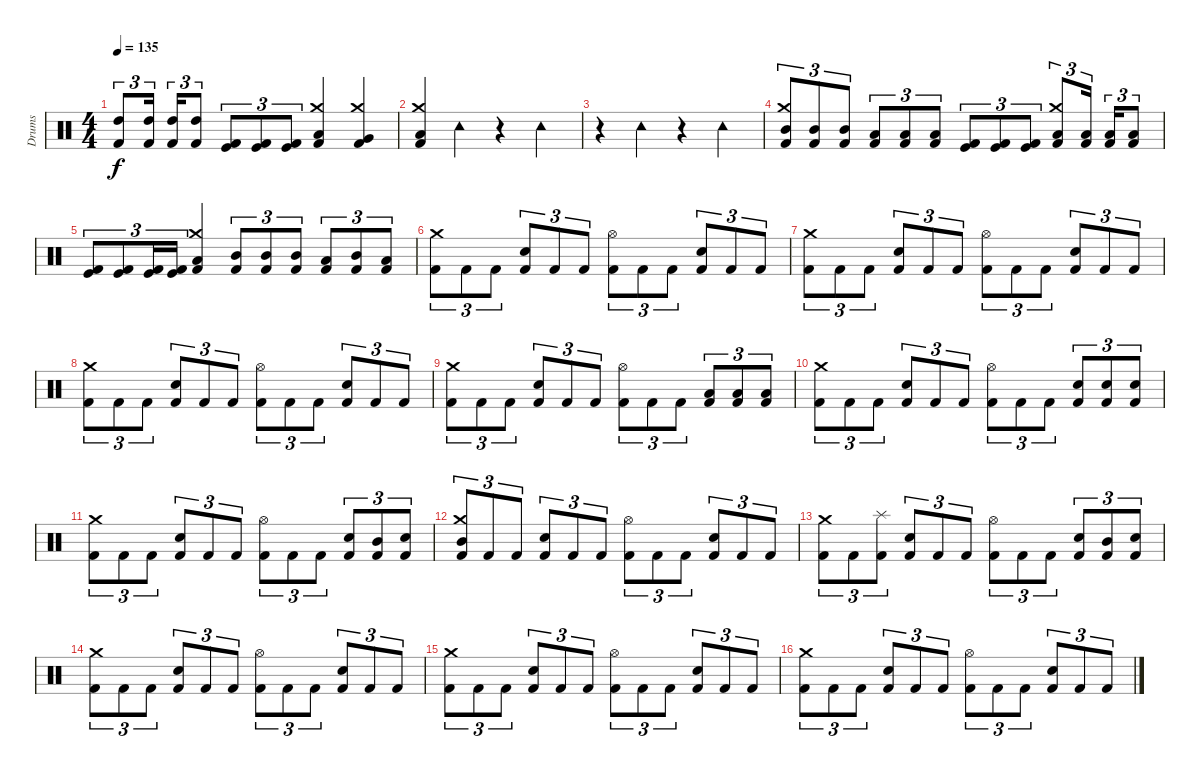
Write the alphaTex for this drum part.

\track ("Drums" "Drums") {instrument percussion}
\staff {score}
\articulation defaults
\ts (4 4)
\tempo 135
\clef neutral
\ks c
("High Tom (hit)" "Kick (hit) 2").8{tu (3 2) dy f} ("High Tom (hit)" "Kick (hit) 2").16{tu (3 2)} ("High Tom (hit)" "Kick (hit) 2").16{tu (3 2)} ("High Tom (hit)" "Kick (hit) 2").8{tu (3 2)} ("Kick (hit)" "Kick (hit) 2").8{tu (3 2)} ("Kick (hit)" "Kick (hit) 2").8{tu (3 2)} ("Kick (hit)" "Kick (hit) 2").8{tu (3 2)} ("Crash medium (hit)" "Low Floor Tom (hit)" "Kick (hit) 2").4 ("Crash medium (hit)" "Very Low Tom (hit)" "Kick (hit) 2").4 |
("Crash medium (hit)" "Low Floor Tom (hit)" "Kick (hit) 2").4 "Tambourine (hit)".4 r.4 "Tambourine (hit)".4 |
r.4 "Tambourine (hit)".4 r.4 "Tambourine (hit)".4 |
("Crash medium (hit)" "Mid Tom (hit)" "Kick (hit) 2").8{tu (3 2)} ("Mid Tom (hit)" "Kick (hit) 2").8{tu (3 2)} ("Mid Tom (hit)" "Kick (hit) 2").8{tu (3 2)} ("Low Tom (hit)" "Kick (hit) 2").8{tu (3 2)} ("Low Tom (hit)" "Kick (hit) 2").8{tu (3 2)} ("Low Tom (hit)" "Kick (hit) 2").8{tu (3 2)} ("Kick (hit)" "Kick (hit) 2").8{tu (3 2)} ("Kick (hit)" "Kick (hit) 2").8{tu (3 2)} ("Kick (hit)" "Kick (hit) 2").8{tu (3 2)} ("Crash medium (hit)" "Low Floor Tom (hit)" "Kick (hit) 2").8{tu (3 2)} ("Low Floor Tom (hit)" "Kick (hit) 2").16{tu (3 2)} ("Low Floor Tom (hit)" "Kick (hit) 2").16{tu (3 2)} ("Low Floor Tom (hit)" "Kick (hit) 2").8{tu (3 2)} |
("Kick (hit)" "Kick (hit) 2").8{tu (3 2)} ("Kick (hit)" "Kick (hit) 2").8{tu (3 2)} ("Kick (hit)" "Kick (hit) 2").16{tu (3 2)} ("Kick (hit)" "Kick (hit) 2").16{tu (3 2)} ("Crash medium (hit)" "Low Floor Tom (hit)" "Kick (hit) 2").4 ("Mid Tom (hit)" "Kick (hit) 2").8{tu (3 2)} ("Mid Tom (hit)" "Kick (hit) 2").8{tu (3 2)} ("Mid Tom (hit)" "Kick (hit) 2").8{tu (3 2)} ("Low Tom (hit)" "Kick (hit) 2").8{tu (3 2)} ("Mid Tom (hit)" "Kick (hit) 2").8{tu (3 2)} ("Low Tom (hit)" "Kick (hit) 2").8{tu (3 2)} |
("Crash medium (hit)" "Kick (hit) 2").8{tu (3 2)} "Kick (hit) 2".8{tu (3 2)} "Kick (hit) 2".8{tu (3 2)} ("Snare (hit) 2" "Kick (hit) 2").8{tu (3 2)} "Kick (hit) 2".8{tu (3 2)} "Kick (hit) 2".8{tu (3 2)} ("Hi-Hat (open)" "Kick (hit) 2").8{tu (3 2)} "Kick (hit) 2".8{tu (3 2)} "Kick (hit) 2".8{tu (3 2)} ("Snare (hit) 2" "Kick (hit) 2").8{tu (3 2)} "Kick (hit) 2".8{tu (3 2)} "Kick (hit) 2".8{tu (3 2)} |
("Crash medium (hit)" "Kick (hit) 2").8{tu (3 2)} "Kick (hit) 2".8{tu (3 2)} "Kick (hit) 2".8{tu (3 2)} ("Snare (hit) 2" "Kick (hit) 2").8{tu (3 2)} "Kick (hit) 2".8{tu (3 2)} "Kick (hit) 2".8{tu (3 2)} ("Hi-Hat (open)" "Kick (hit) 2").8{tu (3 2)} "Kick (hit) 2".8{tu (3 2)} "Kick (hit) 2".8{tu (3 2)} ("Snare (hit) 2" "Kick (hit) 2").8{tu (3 2)} "Kick (hit) 2".8{tu (3 2)} "Kick (hit) 2".8{tu (3 2)} |
("Crash medium (hit)" "Kick (hit) 2").8{tu (3 2)} "Kick (hit) 2".8{tu (3 2)} "Kick (hit) 2".8{tu (3 2)} ("Snare (hit) 2" "Kick (hit) 2").8{tu (3 2)} "Kick (hit) 2".8{tu (3 2)} "Kick (hit) 2".8{tu (3 2)} ("Hi-Hat (open)" "Kick (hit) 2").8{tu (3 2)} "Kick (hit) 2".8{tu (3 2)} "Kick (hit) 2".8{tu (3 2)} ("Snare (hit) 2" "Kick (hit) 2").8{tu (3 2)} "Kick (hit) 2".8{tu (3 2)} "Kick (hit) 2".8{tu (3 2)} |
("Crash medium (hit)" "Kick (hit) 2").8{tu (3 2)} "Kick (hit) 2".8{tu (3 2)} "Kick (hit) 2".8{tu (3 2)} ("Snare (hit) 2" "Kick (hit) 2").8{tu (3 2)} "Kick (hit) 2".8{tu (3 2)} "Kick (hit) 2".8{tu (3 2)} ("Hi-Hat (open)" "Kick (hit) 2").8{tu (3 2)} "Kick (hit) 2".8{tu (3 2)} "Kick (hit) 2".8{tu (3 2)} ("Low Floor Tom (hit)" "Kick (hit) 2").8{tu (3 2)} ("Low Floor Tom (hit)" "Kick (hit) 2").8{tu (3 2)} ("Low Floor Tom (hit)" "Kick (hit) 2").8{tu (3 2)} |
("Crash medium (hit)" "Kick (hit) 2").8{tu (3 2)} "Kick (hit) 2".8{tu (3 2)} "Kick (hit) 2".8{tu (3 2)} ("Snare (hit) 2" "Kick (hit) 2").8{tu (3 2)} "Kick (hit) 2".8{tu (3 2)} "Kick (hit) 2".8{tu (3 2)} ("Hi-Hat (open)" "Kick (hit) 2").8{tu (3 2)} "Kick (hit) 2".8{tu (3 2)} "Kick (hit) 2".8{tu (3 2)} ("Snare (hit) 2" "Kick (hit) 2").8{tu (3 2)} ("Snare (hit) 2" "Kick (hit) 2").8{tu (3 2)} ("Snare (hit) 2" "Kick (hit) 2").8{tu (3 2)} |
("Crash medium (hit)" "Kick (hit) 2").8{tu (3 2)} "Kick (hit) 2".8{tu (3 2)} "Kick (hit) 2".8{tu (3 2)} ("Snare (hit) 2" "Kick (hit) 2").8{tu (3 2)} "Kick (hit) 2".8{tu (3 2)} "Kick (hit) 2".8{tu (3 2)} ("Hi-Hat (open)" "Kick (hit) 2").8{tu (3 2)} "Kick (hit) 2".8{tu (3 2)} "Kick (hit) 2".8{tu (3 2)} ("Snare (hit) 2" "Kick (hit) 2").8{tu (3 2)} ("Mid Tom (hit)" "Kick (hit) 2").8{tu (3 2)} ("Snare (hit) 2" "Kick (hit) 2").8{tu (3 2)} |
("Crash medium (hit)" "Mid Tom (hit)" "Kick (hit) 2").8{tu (3 2)} "Kick (hit) 2".8{tu (3 2)} "Kick (hit) 2".8{tu (3 2)} ("Snare (hit) 2" "Kick (hit) 2").8{tu (3 2)} "Kick (hit) 2".8{tu (3 2)} "Kick (hit) 2".8{tu (3 2)} ("Hi-Hat (open)" "Kick (hit) 2").8{tu (3 2)} "Kick (hit) 2".8{tu (3 2)} "Kick (hit) 2".8{tu (3 2)} ("Snare (hit) 2" "Kick (hit) 2").8{tu (3 2)} "Kick (hit) 2".8{tu (3 2)} "Kick (hit) 2".8{tu (3 2)} |
("Crash medium (hit)" "Kick (hit) 2").8{tu (3 2)} "Kick (hit) 2".8{tu (3 2)} ("Splash (hit)" "Kick (hit) 2").8{tu (3 2)} ("Snare (hit) 2" "Kick (hit) 2").8{tu (3 2)} "Kick (hit) 2".8{tu (3 2)} "Kick (hit) 2".8{tu (3 2)} ("Hi-Hat (open)" "Kick (hit) 2").8{tu (3 2)} "Kick (hit) 2".8{tu (3 2)} "Kick (hit) 2".8{tu (3 2)} ("Snare (hit) 2" "Kick (hit) 2").8{tu (3 2)} ("Mid Tom (hit)" "Kick (hit) 2").8{tu (3 2)} ("Snare (hit) 2" "Kick (hit) 2").8{tu (3 2)} |
("Crash medium (hit)" "Kick (hit) 2").8{tu (3 2)} "Kick (hit) 2".8{tu (3 2)} "Kick (hit) 2".8{tu (3 2)} ("Snare (hit) 2" "Kick (hit) 2").8{tu (3 2)} "Kick (hit) 2".8{tu (3 2)} "Kick (hit) 2".8{tu (3 2)} ("Hi-Hat (open)" "Kick (hit) 2").8{tu (3 2)} "Kick (hit) 2".8{tu (3 2)} "Kick (hit) 2".8{tu (3 2)} ("Snare (hit) 2" "Kick (hit) 2").8{tu (3 2)} "Kick (hit) 2".8{tu (3 2)} "Kick (hit) 2".8{tu (3 2)} |
("Crash medium (hit)" "Kick (hit) 2").8{tu (3 2)} "Kick (hit) 2".8{tu (3 2)} "Kick (hit) 2".8{tu (3 2)} ("Snare (hit) 2" "Kick (hit) 2").8{tu (3 2)} "Kick (hit) 2".8{tu (3 2)} "Kick (hit) 2".8{tu (3 2)} ("Hi-Hat (open)" "Kick (hit) 2").8{tu (3 2)} "Kick (hit) 2".8{tu (3 2)} "Kick (hit) 2".8{tu (3 2)} ("Snare (hit) 2" "Kick (hit) 2").8{tu (3 2)} "Kick (hit) 2".8{tu (3 2)} "Kick (hit) 2".8{tu (3 2)} |
("Crash medium (hit)" "Kick (hit) 2").8{tu (3 2)} "Kick (hit) 2".8{tu (3 2)} "Kick (hit) 2".8{tu (3 2)} ("Snare (hit) 2" "Kick (hit) 2").8{tu (3 2)} "Kick (hit) 2".8{tu (3 2)} "Kick (hit) 2".8{tu (3 2)} ("Hi-Hat (open)" "Kick (hit) 2").8{tu (3 2)} "Kick (hit) 2".8{tu (3 2)} "Kick (hit) 2".8{tu (3 2)} ("Snare (hit) 2" "Kick (hit) 2").8{tu (3 2)} "Kick (hit) 2".8{tu (3 2)} "Kick (hit) 2".8{tu (3 2)}
